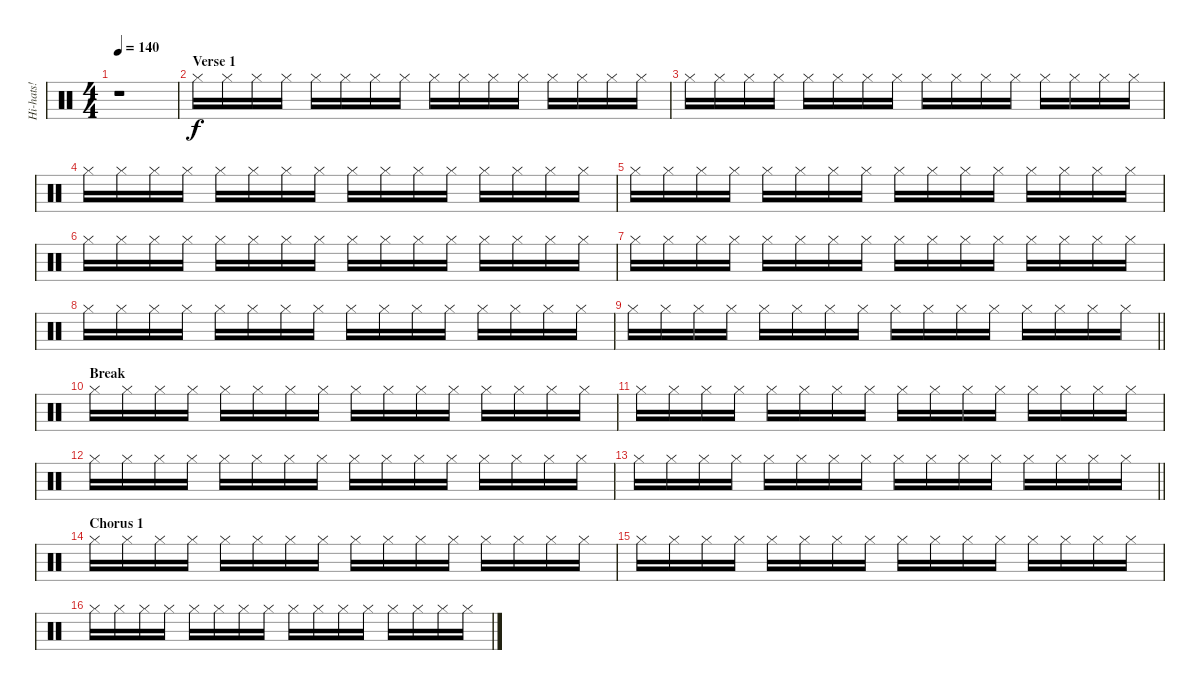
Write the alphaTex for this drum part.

\track ("Hi-hats!" "Hi-hats!") {instrument percussion}
\staff {score}
\articulation defaults
\ts (4 4)
\tempo 140
\clef neutral
\ks c
r.1{dy f} |
\section ("" "Verse 1")
"Hi-Hat (closed)".16 "Hi-Hat (closed)".16 "Hi-Hat (closed)".16 "Hi-Hat (closed)".16 "Hi-Hat (closed)".16 "Hi-Hat (closed)".16 "Hi-Hat (closed)".16 "Hi-Hat (closed)".16 "Hi-Hat (closed)".16 "Hi-Hat (closed)".16 "Hi-Hat (closed)".16 "Hi-Hat (closed)".16 "Hi-Hat (closed)".16 "Hi-Hat (closed)".16 "Hi-Hat (closed)".16 "Hi-Hat (closed)".16 |
"Hi-Hat (closed)".16 "Hi-Hat (closed)".16 "Hi-Hat (closed)".16 "Hi-Hat (closed)".16 "Hi-Hat (closed)".16 "Hi-Hat (closed)".16 "Hi-Hat (closed)".16 "Hi-Hat (closed)".16 "Hi-Hat (closed)".16 "Hi-Hat (closed)".16 "Hi-Hat (closed)".16 "Hi-Hat (closed)".16 "Hi-Hat (closed)".16 "Hi-Hat (closed)".16 "Hi-Hat (closed)".16 "Hi-Hat (closed)".16 |
"Hi-Hat (closed)".16 "Hi-Hat (closed)".16 "Hi-Hat (closed)".16 "Hi-Hat (closed)".16 "Hi-Hat (closed)".16 "Hi-Hat (closed)".16 "Hi-Hat (closed)".16 "Hi-Hat (closed)".16 "Hi-Hat (closed)".16 "Hi-Hat (closed)".16 "Hi-Hat (closed)".16 "Hi-Hat (closed)".16 "Hi-Hat (closed)".16 "Hi-Hat (closed)".16 "Hi-Hat (closed)".16 "Hi-Hat (closed)".16 |
"Hi-Hat (closed)".16 "Hi-Hat (closed)".16 "Hi-Hat (closed)".16 "Hi-Hat (closed)".16 "Hi-Hat (closed)".16 "Hi-Hat (closed)".16 "Hi-Hat (closed)".16 "Hi-Hat (closed)".16 "Hi-Hat (closed)".16 "Hi-Hat (closed)".16 "Hi-Hat (closed)".16 "Hi-Hat (closed)".16 "Hi-Hat (closed)".16 "Hi-Hat (closed)".16 "Hi-Hat (closed)".16 "Hi-Hat (closed)".16 |
"Hi-Hat (closed)".16 "Hi-Hat (closed)".16 "Hi-Hat (closed)".16 "Hi-Hat (closed)".16 "Hi-Hat (closed)".16 "Hi-Hat (closed)".16 "Hi-Hat (closed)".16 "Hi-Hat (closed)".16 "Hi-Hat (closed)".16 "Hi-Hat (closed)".16 "Hi-Hat (closed)".16 "Hi-Hat (closed)".16 "Hi-Hat (closed)".16 "Hi-Hat (closed)".16 "Hi-Hat (closed)".16 "Hi-Hat (closed)".16 |
"Hi-Hat (closed)".16 "Hi-Hat (closed)".16 "Hi-Hat (closed)".16 "Hi-Hat (closed)".16 "Hi-Hat (closed)".16 "Hi-Hat (closed)".16 "Hi-Hat (closed)".16 "Hi-Hat (closed)".16 "Hi-Hat (closed)".16 "Hi-Hat (closed)".16 "Hi-Hat (closed)".16 "Hi-Hat (closed)".16 "Hi-Hat (closed)".16 "Hi-Hat (closed)".16 "Hi-Hat (closed)".16 "Hi-Hat (closed)".16 |
"Hi-Hat (closed)".16 "Hi-Hat (closed)".16 "Hi-Hat (closed)".16 "Hi-Hat (closed)".16 "Hi-Hat (closed)".16 "Hi-Hat (closed)".16 "Hi-Hat (closed)".16 "Hi-Hat (closed)".16 "Hi-Hat (closed)".16 "Hi-Hat (closed)".16 "Hi-Hat (closed)".16 "Hi-Hat (closed)".16 "Hi-Hat (closed)".16 "Hi-Hat (closed)".16 "Hi-Hat (closed)".16 "Hi-Hat (closed)".16 |
\barLineRight lightlight "Hi-Hat (closed)".16 "Hi-Hat (closed)".16 "Hi-Hat (closed)".16 "Hi-Hat (closed)".16 "Hi-Hat (closed)".16 "Hi-Hat (closed)".16 "Hi-Hat (closed)".16 "Hi-Hat (closed)".16 "Hi-Hat (closed)".16 "Hi-Hat (closed)".16 "Hi-Hat (closed)".16 "Hi-Hat (closed)".16 "Hi-Hat (closed)".16 "Hi-Hat (closed)".16 "Hi-Hat (closed)".16 "Hi-Hat (closed)".16
|
\section ("" "Break")
"Hi-Hat (closed)".16 "Hi-Hat (closed)".16 "Hi-Hat (closed)".16 "Hi-Hat (closed)".16 "Hi-Hat (closed)".16 "Hi-Hat (closed)".16 "Hi-Hat (closed)".16 "Hi-Hat (closed)".16 "Hi-Hat (closed)".16 "Hi-Hat (closed)".16 "Hi-Hat (closed)".16 "Hi-Hat (closed)".16 "Hi-Hat (closed)".16 "Hi-Hat (closed)".16 "Hi-Hat (closed)".16 "Hi-Hat (closed)".16 |
"Hi-Hat (closed)".16 "Hi-Hat (closed)".16 "Hi-Hat (closed)".16 "Hi-Hat (closed)".16 "Hi-Hat (closed)".16 "Hi-Hat (closed)".16 "Hi-Hat (closed)".16 "Hi-Hat (closed)".16 "Hi-Hat (closed)".16 "Hi-Hat (closed)".16 "Hi-Hat (closed)".16 "Hi-Hat (closed)".16 "Hi-Hat (closed)".16 "Hi-Hat (closed)".16 "Hi-Hat (closed)".16 "Hi-Hat (closed)".16 |
"Hi-Hat (closed)".16 "Hi-Hat (closed)".16 "Hi-Hat (closed)".16 "Hi-Hat (closed)".16 "Hi-Hat (closed)".16 "Hi-Hat (closed)".16 "Hi-Hat (closed)".16 "Hi-Hat (closed)".16 "Hi-Hat (closed)".16 "Hi-Hat (closed)".16 "Hi-Hat (closed)".16 "Hi-Hat (closed)".16 "Hi-Hat (closed)".16 "Hi-Hat (closed)".16 "Hi-Hat (closed)".16 "Hi-Hat (closed)".16 |
\barLineRight lightlight "Hi-Hat (closed)".16 "Hi-Hat (closed)".16 "Hi-Hat (closed)".16 "Hi-Hat (closed)".16 "Hi-Hat (closed)".16 "Hi-Hat (closed)".16 "Hi-Hat (closed)".16 "Hi-Hat (closed)".16 "Hi-Hat (closed)".16 "Hi-Hat (closed)".16 "Hi-Hat (closed)".16 "Hi-Hat (closed)".16 "Hi-Hat (closed)".16 "Hi-Hat (closed)".16 "Hi-Hat (closed)".16 "Hi-Hat (closed)".16
|
\section ("" "Chorus 1")
"Hi-Hat (closed)".16 "Hi-Hat (closed)".16 "Hi-Hat (closed)".16 "Hi-Hat (closed)".16 "Hi-Hat (closed)".16 "Hi-Hat (closed)".16 "Hi-Hat (closed)".16 "Hi-Hat (closed)".16 "Hi-Hat (closed)".16 "Hi-Hat (closed)".16 "Hi-Hat (closed)".16 "Hi-Hat (closed)".16 "Hi-Hat (closed)".16 "Hi-Hat (closed)".16 "Hi-Hat (closed)".16 "Hi-Hat (closed)".16 |
"Hi-Hat (closed)".16 "Hi-Hat (closed)".16 "Hi-Hat (closed)".16 "Hi-Hat (closed)".16 "Hi-Hat (closed)".16 "Hi-Hat (closed)".16 "Hi-Hat (closed)".16 "Hi-Hat (closed)".16 "Hi-Hat (closed)".16 "Hi-Hat (closed)".16 "Hi-Hat (closed)".16 "Hi-Hat (closed)".16 "Hi-Hat (closed)".16 "Hi-Hat (closed)".16 "Hi-Hat (closed)".16 "Hi-Hat (closed)".16 |
"Hi-Hat (closed)".16 "Hi-Hat (closed)".16 "Hi-Hat (closed)".16 "Hi-Hat (closed)".16 "Hi-Hat (closed)".16 "Hi-Hat (closed)".16 "Hi-Hat (closed)".16 "Hi-Hat (closed)".16 "Hi-Hat (closed)".16 "Hi-Hat (closed)".16 "Hi-Hat (closed)".16 "Hi-Hat (closed)".16 "Hi-Hat (closed)".16 "Hi-Hat (closed)".16 "Hi-Hat (closed)".16 "Hi-Hat (closed)".16
